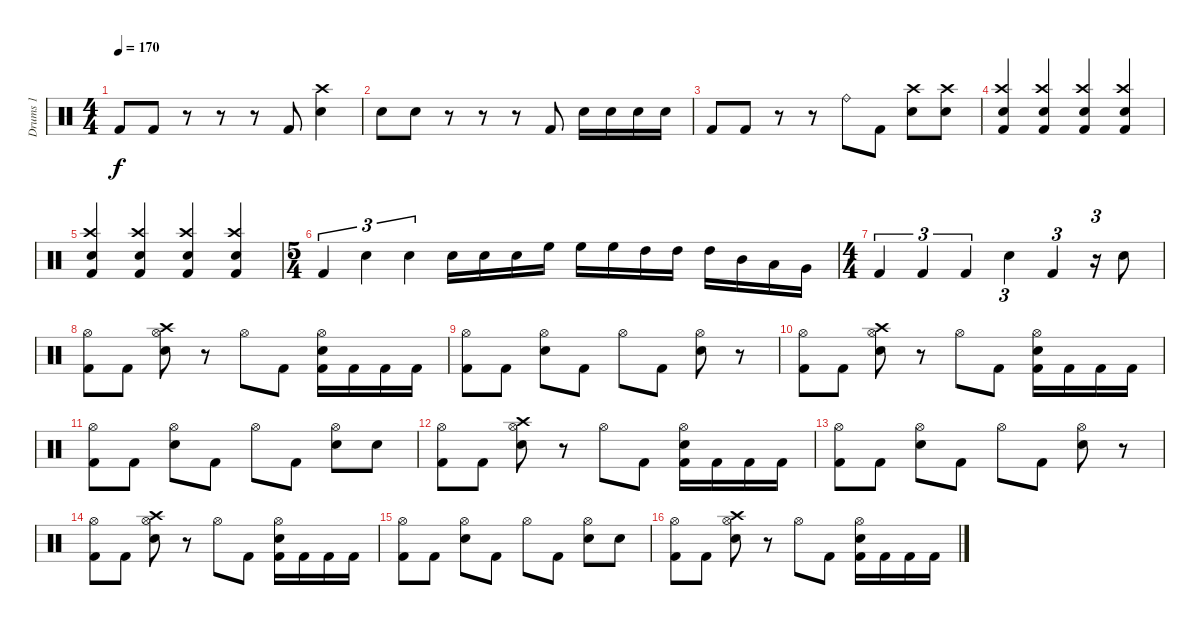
\track ("Drums 1" "Drums 1") {instrument percussion}
\staff {score}
\articulation defaults
\ts (4 4)
\tempo 170
\clef neutral
\ks c "Kick (hit) 2".8{dy f} "Kick (hit) 2".8
r.8 r.8 r.8 "Kick (hit) 2".8 ("Crash high (hit)" "Electric Snare (hit)").4 |
"Electric Snare (hit)".8 "Electric Snare (hit)".8 r.8 r.8 r.8 "Kick (hit) 2".8 "Electric Snare (hit)".16 "Electric Snare (hit)".16 "Electric Snare (hit)".16 "Electric Snare (hit)".16 |
"Kick (hit) 2".8 "Kick (hit) 2".8 r.8 r.8 "Ride (bell)".8 "Kick (hit) 2".8 ("Crash high (hit)" "Electric Snare (hit)").8 ("Crash high (hit)" "Electric Snare (hit)").8 |
("Crash high (hit)" "Electric Snare (hit)" "Kick (hit) 2").4 ("Crash high (hit)" "Electric Snare (hit)" "Kick (hit) 2").4 ("Crash high (hit)" "Electric Snare (hit)" "Kick (hit) 2").4 ("Crash high (hit)" "Electric Snare (hit)" "Kick (hit) 2").4 |
("Crash high (hit)" "Electric Snare (hit)" "Kick (hit) 2").4 ("Crash high (hit)" "Electric Snare (hit)" "Kick (hit) 2").4 ("Crash high (hit)" "Electric Snare (hit)" "Kick (hit) 2").4 ("Crash high (hit)" "Electric Snare (hit)" "Kick (hit) 2").4 |
\ts (5 4)
"Kick (hit) 2".4{tu (3 2)} "Electric Snare (hit)".4{tu (3 2)} "Electric Snare (hit)".4{tu (3 2)} "Electric Snare (hit)".16 "Electric Snare (hit)".16 "Electric Snare (hit)".16 "High Floor Tom (hit)".16 "High Floor Tom (hit)".16 "High Floor Tom (hit)".16 "High Tom (hit)".16 "High Tom (hit)".16 "High Tom (hit)".16 "Mid Tom (hit)".16 "Low Tom (hit)".16 "Very Low Tom (hit)".16 |
\ts (4 4)
"Kick (hit) 2".4{tu (3 2)} "Kick (hit) 2".4{tu (3 2)} "Kick (hit) 2".4{tu (3 2)} "Electric Snare (hit)".4{tu (3 2)} "Kick (hit) 2".4{tu (3 2)} r.16{tu (3 2)} "Electric Snare (hit)".8 |
("Hi-Hat (open)" "Kick (hit) 2").8 "Kick (hit) 2".8 ("Crash high (hit)" "Hi-Hat (open)" "Electric Snare (hit)").8 r.8 "Hi-Hat (open)".8 "Kick (hit) 2".8 ("Hi-Hat (open)" "Electric Snare (hit)" "Kick (hit) 2").16 "Kick (hit) 2".16 "Kick (hit) 2".16 "Kick (hit) 2".16 |
("Hi-Hat (open)" "Kick (hit) 2").8 "Kick (hit) 2".8 ("Hi-Hat (open)" "Electric Snare (hit)").8 "Kick (hit) 2".8 "Hi-Hat (open)".8 "Kick (hit) 2".8 ("Hi-Hat (open)" "Electric Snare (hit)").8 r.8 |
("Hi-Hat (open)" "Kick (hit) 2").8 "Kick (hit) 2".8 ("Crash high (hit)" "Hi-Hat (open)" "Electric Snare (hit)").8 r.8 "Hi-Hat (open)".8 "Kick (hit) 2".8 ("Hi-Hat (open)" "Electric Snare (hit)" "Kick (hit) 2").16 "Kick (hit) 2".16 "Kick (hit) 2".16 "Kick (hit) 2".16 |
("Hi-Hat (open)" "Kick (hit) 2").8 "Kick (hit) 2".8 ("Hi-Hat (open)" "Electric Snare (hit)").8 "Kick (hit) 2".8 "Hi-Hat (open)".8 "Kick (hit) 2".8 ("Hi-Hat (open)" "Electric Snare (hit)").8 "Electric Snare (hit)".8 |
("Hi-Hat (open)" "Kick (hit) 2").8 "Kick (hit) 2".8 ("Crash high (hit)" "Hi-Hat (open)" "Electric Snare (hit)").8 r.8 "Hi-Hat (open)".8 "Kick (hit) 2".8 ("Hi-Hat (open)" "Electric Snare (hit)" "Kick (hit) 2").16 "Kick (hit) 2".16 "Kick (hit) 2".16 "Kick (hit) 2".16 |
("Hi-Hat (open)" "Kick (hit) 2").8 "Kick (hit) 2".8 ("Hi-Hat (open)" "Electric Snare (hit)").8 "Kick (hit) 2".8 "Hi-Hat (open)".8 "Kick (hit) 2".8 ("Hi-Hat (open)" "Electric Snare (hit)").8 r.8 |
("Hi-Hat (open)" "Kick (hit) 2").8 "Kick (hit) 2".8 ("Crash high (hit)" "Hi-Hat (open)" "Electric Snare (hit)").8 r.8 "Hi-Hat (open)".8 "Kick (hit) 2".8 ("Hi-Hat (open)" "Electric Snare (hit)" "Kick (hit) 2").16 "Kick (hit) 2".16 "Kick (hit) 2".16 "Kick (hit) 2".16 |
("Hi-Hat (open)" "Kick (hit) 2").8 "Kick (hit) 2".8 ("Hi-Hat (open)" "Electric Snare (hit)").8 "Kick (hit) 2".8 "Hi-Hat (open)".8 "Kick (hit) 2".8 ("Hi-Hat (open)" "Electric Snare (hit)").8 "Electric Snare (hit)".8 |
("Hi-Hat (open)" "Kick (hit) 2").8 "Kick (hit) 2".8 ("Crash high (hit)" "Hi-Hat (open)" "Electric Snare (hit)").8 r.8 "Hi-Hat (open)".8 "Kick (hit) 2".8 ("Hi-Hat (open)" "Electric Snare (hit)" "Kick (hit) 2").16 "Kick (hit) 2".16 "Kick (hit) 2".16 "Kick (hit) 2".16
